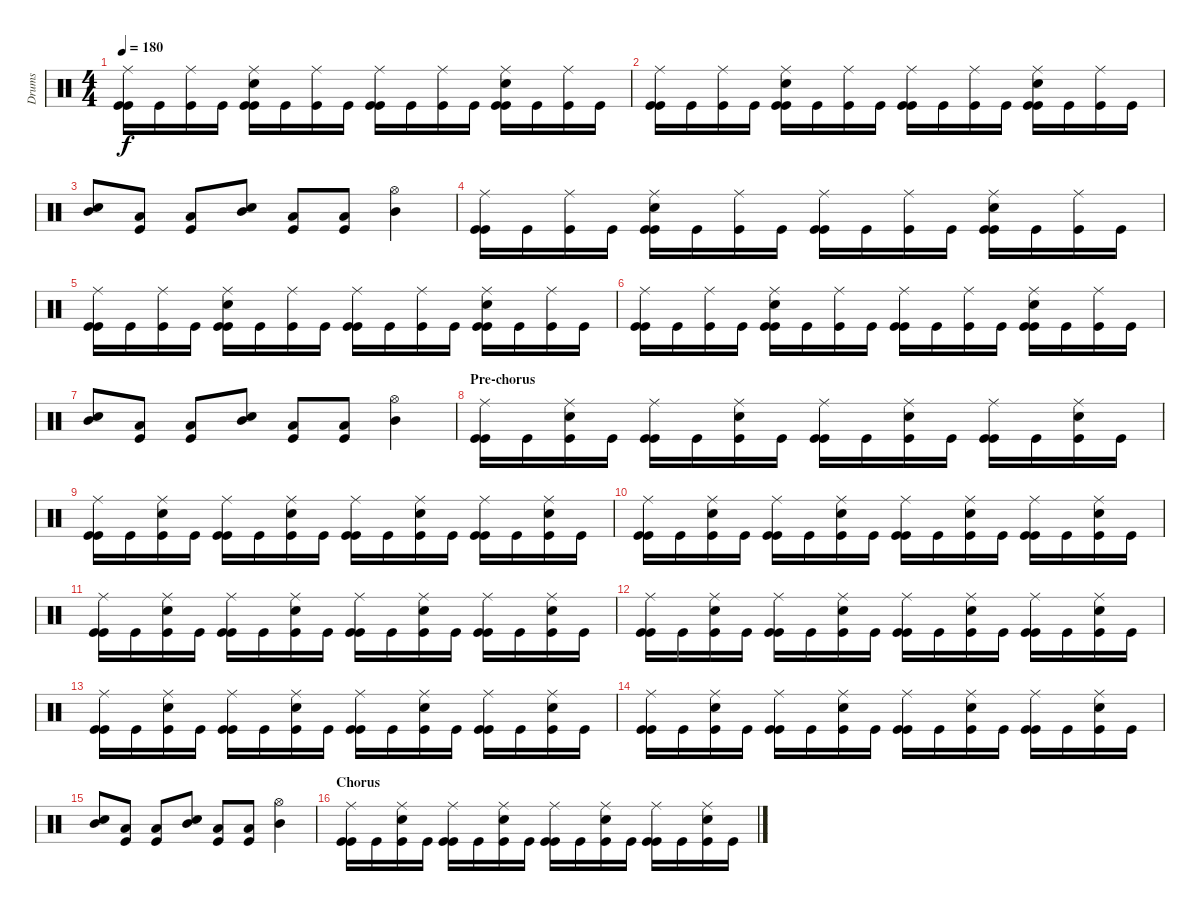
\track ("Drums" "Drums") {instrument percussion}
\staff {score}
\articulation defaults
\ts (4 4)
\tempo 180
\clef neutral
\ks c
("Ride (middle)" "Kick (hit)" "Kick (hit)").16{dy f} "Kick (hit)".16 ("Ride (middle)" "Kick (hit)").16 "Kick (hit)".16 ("Ride (middle)" "Electric Snare (hit)" "Kick (hit)" "Kick (hit)").16 "Kick (hit)".16 ("Ride (middle)" "Kick (hit)").16 "Kick (hit)".16 ("Ride (middle)" "Kick (hit)" "Kick (hit)").16 "Kick (hit)".16 ("Ride (middle)" "Kick (hit)").16 "Kick (hit)".16 ("Ride (middle)" "Electric Snare (hit)" "Kick (hit)" "Kick (hit)").16 "Kick (hit)".16 ("Ride (middle)" "Kick (hit)").16 "Kick (hit)".16 |
("Ride (middle)" "Kick (hit)" "Kick (hit)").16 "Kick (hit)".16 ("Ride (middle)" "Kick (hit)").16 "Kick (hit)".16 ("Ride (middle)" "Electric Snare (hit)" "Kick (hit)" "Kick (hit)").16 "Kick (hit)".16 ("Ride (middle)" "Kick (hit)").16 "Kick (hit)".16 ("Ride (middle)" "Kick (hit)" "Kick (hit)").16 "Kick (hit)".16 ("Ride (middle)" "Kick (hit)").16 "Kick (hit)".16 ("Ride (middle)" "Electric Snare (hit)" "Kick (hit)" "Kick (hit)").16 "Kick (hit)".16 ("Ride (middle)" "Kick (hit)").16 "Kick (hit)".16 |
("Electric Snare (hit)" "Mid Tom (hit)").8 ("Low Tom (hit)" "Kick (hit)").8 ("Low Tom (hit)" "Kick (hit)").8 ("Electric Snare (hit)" "Mid Tom (hit)").8 ("Low Tom (hit)" "Kick (hit)").8 ("Low Tom (hit)" "Kick (hit)").8 ("Hi-Hat (open)" "Mid Tom (hit)").4 |
("Ride (middle)" "Kick (hit)" "Kick (hit)").16 "Kick (hit)".16 ("Ride (middle)" "Kick (hit)").16 "Kick (hit)".16 ("Ride (middle)" "Electric Snare (hit)" "Kick (hit)" "Kick (hit)").16 "Kick (hit)".16 ("Ride (middle)" "Kick (hit)").16 "Kick (hit)".16 ("Ride (middle)" "Kick (hit)" "Kick (hit)").16 "Kick (hit)".16 ("Ride (middle)" "Kick (hit)").16 "Kick (hit)".16 ("Ride (middle)" "Electric Snare (hit)" "Kick (hit)" "Kick (hit)").16 "Kick (hit)".16 ("Ride (middle)" "Kick (hit)").16 "Kick (hit)".16 |
("Ride (middle)" "Kick (hit)" "Kick (hit)").16 "Kick (hit)".16 ("Ride (middle)" "Kick (hit)").16 "Kick (hit)".16 ("Ride (middle)" "Electric Snare (hit)" "Kick (hit)" "Kick (hit)").16 "Kick (hit)".16 ("Ride (middle)" "Kick (hit)").16 "Kick (hit)".16 ("Ride (middle)" "Kick (hit)" "Kick (hit)").16 "Kick (hit)".16 ("Ride (middle)" "Kick (hit)").16 "Kick (hit)".16 ("Ride (middle)" "Electric Snare (hit)" "Kick (hit)" "Kick (hit)").16 "Kick (hit)".16 ("Ride (middle)" "Kick (hit)").16 "Kick (hit)".16 |
("Ride (middle)" "Kick (hit)" "Kick (hit)").16 "Kick (hit)".16 ("Ride (middle)" "Kick (hit)").16 "Kick (hit)".16 ("Ride (middle)" "Electric Snare (hit)" "Kick (hit)" "Kick (hit)").16 "Kick (hit)".16 ("Ride (middle)" "Kick (hit)").16 "Kick (hit)".16 ("Ride (middle)" "Kick (hit)" "Kick (hit)").16 "Kick (hit)".16 ("Ride (middle)" "Kick (hit)").16 "Kick (hit)".16 ("Ride (middle)" "Electric Snare (hit)" "Kick (hit)" "Kick (hit)").16 "Kick (hit)".16 ("Ride (middle)" "Kick (hit)").16 "Kick (hit)".16 |
("Electric Snare (hit)" "Mid Tom (hit)").8 ("Low Tom (hit)" "Kick (hit)").8 ("Low Tom (hit)" "Kick (hit)").8 ("Electric Snare (hit)" "Mid Tom (hit)").8 ("Low Tom (hit)" "Kick (hit)").8 ("Low Tom (hit)" "Kick (hit)").8 ("Hi-Hat (open)" "Mid Tom (hit)").4 |
\section ("" "Pre-chorus")
("Ride (middle)" "Kick (hit)" "Kick (hit)").16 "Kick (hit)".16 ("Ride (middle)" "Electric Snare (hit)" "Kick (hit)").16 "Kick (hit)".16 ("Ride (middle)" "Kick (hit)" "Kick (hit)").16 "Kick (hit)".16 ("Ride (middle)" "Electric Snare (hit)" "Kick (hit)").16 "Kick (hit)".16 ("Ride (middle)" "Kick (hit)" "Kick (hit)").16 "Kick (hit)".16 ("Ride (middle)" "Electric Snare (hit)" "Kick (hit)").16 "Kick (hit)".16 ("Ride (middle)" "Kick (hit)" "Kick (hit)").16 "Kick (hit)".16 ("Ride (middle)" "Electric Snare (hit)" "Kick (hit)").16 "Kick (hit)".16 |
("Ride (middle)" "Kick (hit)" "Kick (hit)").16 "Kick (hit)".16 ("Ride (middle)" "Electric Snare (hit)" "Kick (hit)").16 "Kick (hit)".16 ("Ride (middle)" "Kick (hit)" "Kick (hit)").16 "Kick (hit)".16 ("Ride (middle)" "Electric Snare (hit)" "Kick (hit)").16 "Kick (hit)".16 ("Ride (middle)" "Kick (hit)" "Kick (hit)").16 "Kick (hit)".16 ("Ride (middle)" "Electric Snare (hit)" "Kick (hit)").16 "Kick (hit)".16 ("Ride (middle)" "Kick (hit)" "Kick (hit)").16 "Kick (hit)".16 ("Ride (middle)" "Electric Snare (hit)" "Kick (hit)").16 "Kick (hit)".16 |
("Ride (middle)" "Kick (hit)" "Kick (hit)").16 "Kick (hit)".16 ("Ride (middle)" "Electric Snare (hit)" "Kick (hit)").16 "Kick (hit)".16 ("Ride (middle)" "Kick (hit)" "Kick (hit)").16 "Kick (hit)".16 ("Ride (middle)" "Electric Snare (hit)" "Kick (hit)").16 "Kick (hit)".16 ("Ride (middle)" "Kick (hit)" "Kick (hit)").16 "Kick (hit)".16 ("Ride (middle)" "Electric Snare (hit)" "Kick (hit)").16 "Kick (hit)".16 ("Ride (middle)" "Kick (hit)" "Kick (hit)").16 "Kick (hit)".16 ("Ride (middle)" "Electric Snare (hit)" "Kick (hit)").16 "Kick (hit)".16 |
("Ride (middle)" "Kick (hit)" "Kick (hit)").16 "Kick (hit)".16 ("Ride (middle)" "Electric Snare (hit)" "Kick (hit)").16 "Kick (hit)".16 ("Ride (middle)" "Kick (hit)" "Kick (hit)").16 "Kick (hit)".16 ("Ride (middle)" "Electric Snare (hit)" "Kick (hit)").16 "Kick (hit)".16 ("Ride (middle)" "Kick (hit)" "Kick (hit)").16 "Kick (hit)".16 ("Ride (middle)" "Electric Snare (hit)" "Kick (hit)").16 "Kick (hit)".16 ("Ride (middle)" "Kick (hit)" "Kick (hit)").16 "Kick (hit)".16 ("Ride (middle)" "Electric Snare (hit)" "Kick (hit)").16 "Kick (hit)".16 |
("Ride (middle)" "Kick (hit)" "Kick (hit)").16 "Kick (hit)".16 ("Ride (middle)" "Electric Snare (hit)" "Kick (hit)").16 "Kick (hit)".16 ("Ride (middle)" "Kick (hit)" "Kick (hit)").16 "Kick (hit)".16 ("Ride (middle)" "Electric Snare (hit)" "Kick (hit)").16 "Kick (hit)".16 ("Ride (middle)" "Kick (hit)" "Kick (hit)").16 "Kick (hit)".16 ("Ride (middle)" "Electric Snare (hit)" "Kick (hit)").16 "Kick (hit)".16 ("Ride (middle)" "Kick (hit)" "Kick (hit)").16 "Kick (hit)".16 ("Ride (middle)" "Electric Snare (hit)" "Kick (hit)").16 "Kick (hit)".16 |
("Ride (middle)" "Kick (hit)" "Kick (hit)").16 "Kick (hit)".16 ("Ride (middle)" "Electric Snare (hit)" "Kick (hit)").16 "Kick (hit)".16 ("Ride (middle)" "Kick (hit)" "Kick (hit)").16 "Kick (hit)".16 ("Ride (middle)" "Electric Snare (hit)" "Kick (hit)").16 "Kick (hit)".16 ("Ride (middle)" "Kick (hit)" "Kick (hit)").16 "Kick (hit)".16 ("Ride (middle)" "Electric Snare (hit)" "Kick (hit)").16 "Kick (hit)".16 ("Ride (middle)" "Kick (hit)" "Kick (hit)").16 "Kick (hit)".16 ("Ride (middle)" "Electric Snare (hit)" "Kick (hit)").16 "Kick (hit)".16 |
("Ride (middle)" "Kick (hit)" "Kick (hit)").16 "Kick (hit)".16 ("Ride (middle)" "Electric Snare (hit)" "Kick (hit)").16 "Kick (hit)".16 ("Ride (middle)" "Kick (hit)" "Kick (hit)").16 "Kick (hit)".16 ("Ride (middle)" "Electric Snare (hit)" "Kick (hit)").16 "Kick (hit)".16 ("Ride (middle)" "Kick (hit)" "Kick (hit)").16 "Kick (hit)".16 ("Ride (middle)" "Electric Snare (hit)" "Kick (hit)").16 "Kick (hit)".16 ("Ride (middle)" "Kick (hit)" "Kick (hit)").16 "Kick (hit)".16 ("Ride (middle)" "Electric Snare (hit)" "Kick (hit)").16 "Kick (hit)".16 |
("Electric Snare (hit)" "Mid Tom (hit)").8 ("Low Tom (hit)" "Kick (hit)").8 ("Low Tom (hit)" "Kick (hit)").8 ("Electric Snare (hit)" "Mid Tom (hit)").8 ("Low Tom (hit)" "Kick (hit)").8 ("Low Tom (hit)" "Kick (hit)").8 ("Hi-Hat (open)" "Mid Tom (hit)").4 |
\section ("" "Chorus")
("Ride (middle)" "Kick (hit)" "Kick (hit)").16 "Kick (hit)".16 ("Ride (middle)" "Electric Snare (hit)" "Kick (hit)").16 "Kick (hit)".16 ("Ride (middle)" "Kick (hit)" "Kick (hit)").16 "Kick (hit)".16 ("Ride (middle)" "Electric Snare (hit)" "Kick (hit)").16 "Kick (hit)".16 ("Ride (middle)" "Kick (hit)" "Kick (hit)").16 "Kick (hit)".16 ("Ride (middle)" "Electric Snare (hit)" "Kick (hit)").16 "Kick (hit)".16 ("Ride (middle)" "Kick (hit)" "Kick (hit)").16 "Kick (hit)".16 ("Ride (middle)" "Electric Snare (hit)" "Kick (hit)").16 "Kick (hit)".16
